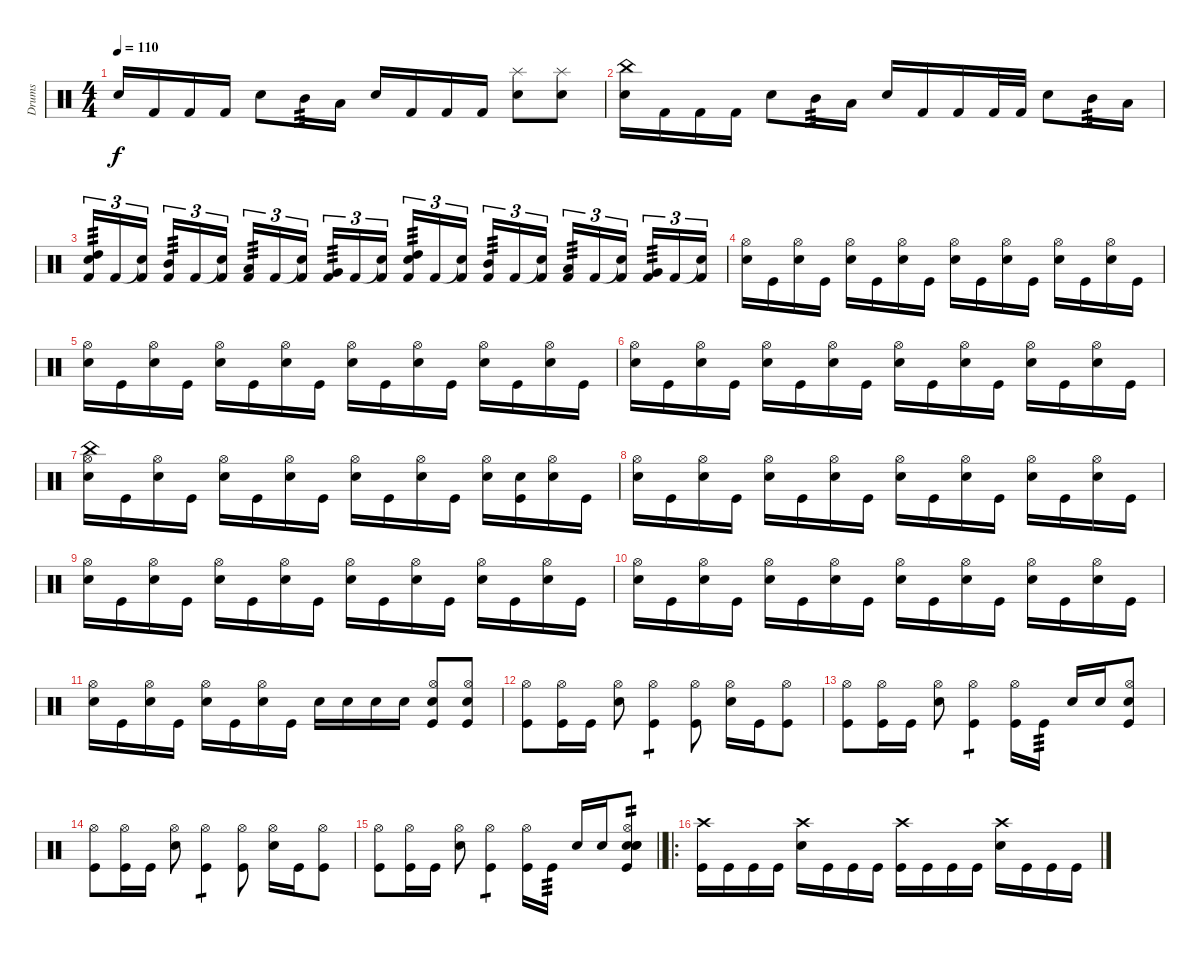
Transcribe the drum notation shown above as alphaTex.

\track ("Drums" "Drums") {instrument percussion}
\staff {score}
\articulation defaults
\ts (4 4)
\tempo 110
\clef neutral
\ks c "Electric Snare (hit)".16{dy f} "Kick (hit) 2".16 "Kick (hit) 2".16 "Kick (hit) 2".16 "Electric Snare (hit)".8 "Mid Tom (hit)".16{tp 3} "Low Tom (hit)".16 "Electric Snare (hit)".16 "Kick (hit) 2".16 "Kick (hit) 2".16 "Kick (hit) 2".16
("Splash (hit)" "Electric Snare (hit)").8 ("Splash (hit)" "Electric Snare (hit)").8 |
("China (hit)" "Electric Snare (hit)").16 "Kick (hit) 2".16 "Kick (hit) 2".16 "Kick (hit) 2".16 "Electric Snare (hit)".8 "Mid Tom (hit)".16{tp 3} "Low Tom (hit)".16 "Electric Snare (hit)".16 "Kick (hit) 2".16 "Kick (hit) 2".16 "Kick (hit) 2".32 "Kick (hit) 2".32 "Electric Snare (hit)".8 "Mid Tom (hit)".16{tp 3} "Low Tom (hit)".16 |
("High Tom (hit)" "Electric Snare (hit)" "Kick (hit) 2").16{tu (3 2) tp 3} "Kick (hit) 2".16{tu (3 2)} ("Snare (hit)"{t} "Kick (hit) 2").16{tu (3 2) beam splitsecondary} ("Mid Tom (hit)" "Kick (hit) 2").16{tu (3 2) tp 3} "Kick (hit) 2".16{tu (3 2)} ("Snare (hit)"{t} "Kick (hit) 2").16{tu (3 2)} ("Low Tom (hit)" "Kick (hit) 2").16{tu (3 2) tp 3} "Kick (hit) 2".16{tu (3 2)} ("Snare (hit)"{t} "Kick (hit) 2").16{tu (3 2) beam splitsecondary} ("Very Low Tom (hit)" "Kick (hit) 2").16{tu (3 2) tp 3} "Kick (hit) 2".16{tu (3 2)} ("Snare (hit)"{t} "Kick (hit) 2").16{tu (3 2)} ("High Tom (hit)" "Electric Snare (hit)" "Kick (hit) 2").16{tu (3 2) tp 3} "Kick (hit) 2".16{tu (3 2)} ("Snare (hit)"{t} "Kick (hit) 2").16{tu (3 2) beam splitsecondary} ("Mid Tom (hit)" "Kick (hit) 2").16{tu (3 2) tp 3} "Kick (hit) 2".16{tu (3 2)} ("Snare (hit)"{t} "Kick (hit) 2").16{tu (3 2)} ("Low Tom (hit)" "Kick (hit) 2").16{tu (3 2) tp 3} "Kick (hit) 2".16{tu (3 2)} ("Snare (hit)"{t} "Kick (hit) 2").16{tu (3 2) beam splitsecondary} ("Very Low Tom (hit)" "Kick (hit) 2").16{tu (3 2) tp 3} "Kick (hit) 2".16{tu (3 2)} ("Snare (hit)"{t} "Kick (hit) 2").16{tu (3 2)} |
("Hi-Hat (open)" "Snare (hit) 2").16 "Kick (hit)".16 ("Hi-Hat (open)" "Snare (hit) 2").16 "Kick (hit)".16 ("Hi-Hat (open)" "Snare (hit) 2").16 "Kick (hit)".16 ("Hi-Hat (open)" "Snare (hit) 2").16 "Kick (hit)".16 ("Hi-Hat (open)" "Snare (hit) 2").16 "Kick (hit)".16 ("Hi-Hat (open)" "Snare (hit) 2").16 "Kick (hit)".16 ("Hi-Hat (open)" "Snare (hit) 2").16 "Kick (hit)".16 ("Hi-Hat (open)" "Snare (hit) 2").16 "Kick (hit)".16 |
("Hi-Hat (open)" "Snare (hit) 2").16 "Kick (hit)".16 ("Hi-Hat (open)" "Snare (hit) 2").16 "Kick (hit)".16 ("Hi-Hat (open)" "Snare (hit) 2").16 "Kick (hit)".16 ("Hi-Hat (open)" "Snare (hit) 2").16 "Kick (hit)".16 ("Hi-Hat (open)" "Snare (hit) 2").16 "Kick (hit)".16 ("Hi-Hat (open)" "Snare (hit) 2").16 "Kick (hit)".16 ("Hi-Hat (open)" "Snare (hit) 2").16 "Kick (hit)".16 ("Hi-Hat (open)" "Snare (hit) 2").16 "Kick (hit)".16 |
("Hi-Hat (open)" "Snare (hit) 2").16 "Kick (hit)".16 ("Hi-Hat (open)" "Snare (hit) 2").16 "Kick (hit)".16 ("Hi-Hat (open)" "Snare (hit) 2").16 "Kick (hit)".16 ("Hi-Hat (open)" "Snare (hit) 2").16 "Kick (hit)".16 ("Hi-Hat (open)" "Snare (hit) 2").16 "Kick (hit)".16 ("Hi-Hat (open)" "Snare (hit) 2").16 "Kick (hit)".16 ("Hi-Hat (open)" "Snare (hit) 2").16 "Kick (hit)".16 ("Hi-Hat (open)" "Snare (hit) 2").16 "Kick (hit)".16 |
("China (hit)" "Hi-Hat (open)" "Snare (hit) 2").16 "Kick (hit)".16 ("Hi-Hat (open)" "Snare (hit) 2").16 "Kick (hit)".16 ("Hi-Hat (open)" "Snare (hit) 2").16 "Kick (hit)".16 ("Hi-Hat (open)" "Snare (hit) 2").16 "Kick (hit)".16 ("Hi-Hat (open)" "Snare (hit) 2").16 "Kick (hit)".16 ("Hi-Hat (open)" "Snare (hit) 2").16 "Kick (hit)".16 ("Hi-Hat (open)" "Snare (hit) 2").16 ("Snare (hit) 2" "Kick (hit)").16 ("Hi-Hat (open)" "Snare (hit) 2").16 "Kick (hit)".16 |
("Hi-Hat (open)" "Snare (hit) 2").16 "Kick (hit)".16 ("Hi-Hat (open)" "Snare (hit) 2").16 "Kick (hit)".16 ("Hi-Hat (open)" "Snare (hit) 2").16 "Kick (hit)".16 ("Hi-Hat (open)" "Snare (hit) 2").16 "Kick (hit)".16 ("Hi-Hat (open)" "Snare (hit) 2").16 "Kick (hit)".16 ("Hi-Hat (open)" "Snare (hit) 2").16 "Kick (hit)".16 ("Hi-Hat (open)" "Snare (hit) 2").16 "Kick (hit)".16 ("Hi-Hat (open)" "Snare (hit) 2").16 "Kick (hit)".16 |
("Hi-Hat (open)" "Snare (hit) 2").16 "Kick (hit)".16 ("Hi-Hat (open)" "Snare (hit) 2").16 "Kick (hit)".16 ("Hi-Hat (open)" "Snare (hit) 2").16 "Kick (hit)".16 ("Hi-Hat (open)" "Snare (hit) 2").16 "Kick (hit)".16 ("Hi-Hat (open)" "Snare (hit) 2").16 "Kick (hit)".16 ("Hi-Hat (open)" "Snare (hit) 2").16 "Kick (hit)".16 ("Hi-Hat (open)" "Snare (hit) 2").16 "Kick (hit)".16 ("Hi-Hat (open)" "Snare (hit) 2").16 "Kick (hit)".16 |
("Hi-Hat (open)" "Snare (hit) 2").16 "Kick (hit)".16 ("Hi-Hat (open)" "Snare (hit) 2").16 "Kick (hit)".16 ("Hi-Hat (open)" "Snare (hit) 2").16 "Kick (hit)".16 ("Hi-Hat (open)" "Snare (hit) 2").16 "Kick (hit)".16 ("Hi-Hat (open)" "Snare (hit) 2").16 "Kick (hit)".16 ("Hi-Hat (open)" "Snare (hit) 2").16 "Kick (hit)".16 ("Hi-Hat (open)" "Snare (hit) 2").16 "Kick (hit)".16 ("Hi-Hat (open)" "Snare (hit) 2").16 "Kick (hit)".16 |
("Hi-Hat (open)" "Snare (hit) 2").16 "Kick (hit)".16 ("Hi-Hat (open)" "Snare (hit) 2").16 "Kick (hit)".16 ("Hi-Hat (open)" "Snare (hit) 2").16 "Kick (hit)".16 ("Hi-Hat (open)" "Snare (hit) 2").16 "Kick (hit)".16 "Snare (hit) 2".16 "Snare (hit) 2".16 "Snare (hit) 2".16 "Snare (hit) 2".16 ("Snare (hit) 2" "Hi-Hat (open)" "Kick (hit)").8 ("Snare (hit) 2" "Hi-Hat (open)" "Kick (hit)").8 |
("Hi-Hat (open)" "Kick (hit)").8 ("Hi-Hat (open)" "Kick (hit)").16 "Kick (hit)".16 ("Hi-Hat (open)" "Snare (hit) 2").8 ("Hi-Hat (open)" "Kick (hit)").4{tp 1} ("Hi-Hat (open)" "Kick (hit)").8 ("Hi-Hat (open)" "Snare (hit) 2").16 "Kick (hit)".16 ("Hi-Hat (open)" "Kick (hit)").8 |
("Hi-Hat (open)" "Kick (hit)").8 ("Hi-Hat (open)" "Kick (hit)").16 "Kick (hit)".16 ("Hi-Hat (open)" "Snare (hit) 2").8 ("Hi-Hat (open)" "Kick (hit)").4{tp 1} ("Hi-Hat (open)" "Kick (hit)").16 "Kick (hit)".16{tp 3} "Snare (hit) 2".16 "Snare (hit) 2".16 ("Kick (hit)" "Hi-Hat (open)" "Snare (hit) 2").8 |
("Hi-Hat (open)" "Kick (hit)").8 ("Hi-Hat (open)" "Kick (hit)").16 "Kick (hit)".16 ("Hi-Hat (open)" "Snare (hit) 2").8 ("Hi-Hat (open)" "Kick (hit)").4{tp 1} ("Hi-Hat (open)" "Kick (hit)").8 ("Hi-Hat (open)" "Snare (hit) 2").16 "Kick (hit)".16 ("Hi-Hat (open)" "Kick (hit)").8 |
\barLineRight lightlight
("Hi-Hat (open)" "Kick (hit)").8 ("Hi-Hat (open)" "Kick (hit)").16 "Kick (hit)".16 ("Hi-Hat (open)" "Snare (hit) 2").8 ("Hi-Hat (open)" "Kick (hit)").4{tp 1} ("Hi-Hat (open)" "Kick (hit)").16 "Kick (hit)".16{tp 3} "Snare (hit) 2".16 "Snare (hit) 2".16 ("Hi-Hat (open)" "Kick (hit)" "Snare (hit) 2" "Snare (hit) 2" "Snare (hit) 2").8{tp 2} |
\ro
("Crash high (hit)" "Kick (hit)").16 "Kick (hit)".16 "Kick (hit)".16 "Kick (hit)".16 ("Crash high (hit)" "Snare (hit) 2").16 "Kick (hit)".16 "Kick (hit)".16 "Kick (hit)".16 ("Crash high (hit)" "Kick (hit)").16 "Kick (hit)".16 "Kick (hit)".16 "Kick (hit)".16 ("Crash high (hit)" "Snare (hit) 2").16 "Kick (hit)".16 "Kick (hit)".16 "Kick (hit)".16
